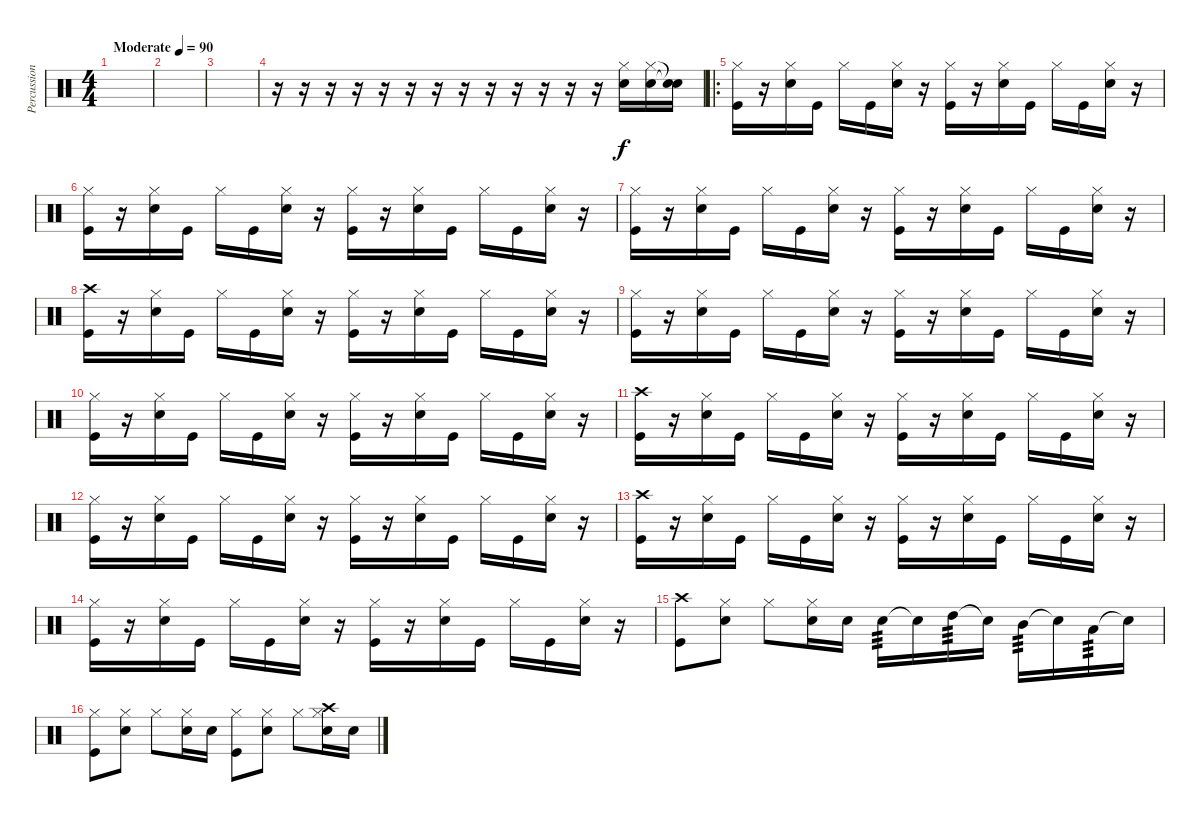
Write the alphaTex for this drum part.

\track ("Percussion" "Percussion") {instrument percussion}
\staff {score}
\articulation defaults
\ts (4 4)
\tempo (90 "Moderate")
\clef neutral
\ks c
|
|
|
r.16 r.16 r.16 r.16 r.16 r.16 r.16 r.16 r.16 r.16 r.16 r.16 r.16 ("Hi-Hat (closed)" "Electric Snare (hit)").16 ("Hi-Hat (closed)" "Electric Snare (hit)").16 ("Snare (hit)"{t} "Snare (hit)"{t}).16 |
\ro
("Hi-Hat (closed)" "Kick (hit)").16{volume 13} r.16 ("Hi-Hat (closed)" "Electric Snare (hit)").16 "Kick (hit)".16 "Hi-Hat (closed)".16 "Kick (hit)".16 ("Hi-Hat (closed)" "Electric Snare (hit)").16 r.16 ("Hi-Hat (closed)" "Kick (hit)").16 r.16 ("Hi-Hat (closed)" "Electric Snare (hit)").16 "Kick (hit)".16 "Hi-Hat (closed)".16 "Kick (hit)".16 ("Hi-Hat (closed)" "Electric Snare (hit)").16 r.16 |
("Hi-Hat (closed)" "Kick (hit)").16 r.16 ("Hi-Hat (closed)" "Electric Snare (hit)").16 "Kick (hit)".16 "Hi-Hat (closed)".16 "Kick (hit)".16 ("Hi-Hat (closed)" "Electric Snare (hit)").16 r.16 ("Hi-Hat (closed)" "Kick (hit)").16 r.16 ("Hi-Hat (closed)" "Electric Snare (hit)").16 "Kick (hit)".16 "Hi-Hat (closed)".16 "Kick (hit)".16 ("Hi-Hat (closed)" "Electric Snare (hit)").16 r.16 |
("Hi-Hat (closed)" "Kick (hit)").16 r.16 ("Hi-Hat (closed)" "Electric Snare (hit)").16 "Kick (hit)".16 "Hi-Hat (closed)".16 "Kick (hit)".16 ("Hi-Hat (closed)" "Electric Snare (hit)").16 r.16 ("Hi-Hat (closed)" "Kick (hit)").16 r.16 ("Hi-Hat (closed)" "Electric Snare (hit)").16 "Kick (hit)".16 "Hi-Hat (closed)".16 "Kick (hit)".16 ("Hi-Hat (closed)" "Electric Snare (hit)").16 r.16 |
("Crash high (hit)" "Kick (hit)").16 r.16 ("Hi-Hat (closed)" "Electric Snare (hit)").16 "Kick (hit)".16 "Hi-Hat (closed)".16 "Kick (hit)".16 ("Hi-Hat (closed)" "Electric Snare (hit)").16 r.16 ("Hi-Hat (closed)" "Kick (hit)").16 r.16 ("Hi-Hat (closed)" "Electric Snare (hit)").16 "Kick (hit)".16 "Hi-Hat (closed)".16 "Kick (hit)".16 ("Hi-Hat (closed)" "Electric Snare (hit)").16 r.16 |
("Hi-Hat (closed)" "Kick (hit)").16 r.16 ("Hi-Hat (closed)" "Electric Snare (hit)").16 "Kick (hit)".16 "Hi-Hat (closed)".16 "Kick (hit)".16 ("Hi-Hat (closed)" "Electric Snare (hit)").16 r.16 ("Hi-Hat (closed)" "Kick (hit)").16 r.16 ("Hi-Hat (closed)" "Electric Snare (hit)").16 "Kick (hit)".16 "Hi-Hat (closed)".16 "Kick (hit)".16 ("Hi-Hat (closed)" "Electric Snare (hit)").16 r.16 |
("Hi-Hat (closed)" "Kick (hit)").16 r.16 ("Hi-Hat (closed)" "Electric Snare (hit)").16 "Kick (hit)".16 "Hi-Hat (closed)".16 "Kick (hit)".16 ("Hi-Hat (closed)" "Electric Snare (hit)").16 r.16 ("Hi-Hat (closed)" "Kick (hit)").16 r.16 ("Hi-Hat (closed)" "Electric Snare (hit)").16 "Kick (hit)".16 "Hi-Hat (closed)".16 "Kick (hit)".16 ("Hi-Hat (closed)" "Electric Snare (hit)").16 r.16 |
("Crash high (hit)" "Kick (hit)").16 r.16 ("Hi-Hat (closed)" "Electric Snare (hit)").16 "Kick (hit)".16 "Hi-Hat (closed)".16 "Kick (hit)".16 ("Hi-Hat (closed)" "Electric Snare (hit)").16 r.16 ("Hi-Hat (closed)" "Kick (hit)").16 r.16 ("Hi-Hat (closed)" "Electric Snare (hit)").16 "Kick (hit)".16 "Hi-Hat (closed)".16 "Kick (hit)".16 ("Hi-Hat (closed)" "Electric Snare (hit)").16 r.16 |
("Hi-Hat (closed)" "Kick (hit)").16 r.16 ("Hi-Hat (closed)" "Electric Snare (hit)").16 "Kick (hit)".16 "Hi-Hat (closed)".16 "Kick (hit)".16 ("Hi-Hat (closed)" "Electric Snare (hit)").16 r.16 ("Hi-Hat (closed)" "Kick (hit)").16 r.16 ("Hi-Hat (closed)" "Electric Snare (hit)").16 "Kick (hit)".16 "Hi-Hat (closed)".16 "Kick (hit)".16 ("Hi-Hat (closed)" "Electric Snare (hit)").16 r.16 |
("Crash high (hit)" "Kick (hit)").16 r.16 ("Hi-Hat (closed)" "Electric Snare (hit)").16 "Kick (hit)".16 "Hi-Hat (closed)".16 "Kick (hit)".16 ("Hi-Hat (closed)" "Electric Snare (hit)").16 r.16 ("Hi-Hat (closed)" "Kick (hit)").16 r.16 ("Hi-Hat (closed)" "Electric Snare (hit)").16 "Kick (hit)".16 "Hi-Hat (closed)".16 "Kick (hit)".16 ("Hi-Hat (closed)" "Electric Snare (hit)").16 r.16 |
("Hi-Hat (closed)" "Kick (hit)").16 r.16 ("Hi-Hat (closed)" "Electric Snare (hit)").16 "Kick (hit)".16 "Hi-Hat (closed)".16 "Kick (hit)".16 ("Hi-Hat (closed)" "Electric Snare (hit)").16 r.16 ("Hi-Hat (closed)" "Kick (hit)").16 r.16 ("Hi-Hat (closed)" "Electric Snare (hit)").16 "Kick (hit)".16 "Hi-Hat (closed)".16 "Kick (hit)".16 ("Hi-Hat (closed)" "Electric Snare (hit)").16 r.16 |
("Crash high (hit)" "Kick (hit)").8{volume 16} ("Hi-Hat (closed)" "Electric Snare (hit)").8 "Hi-Hat (closed)".8 ("Hi-Hat (closed)" "Electric Snare (hit)").16 "Electric Snare (hit)".16 "Electric Snare (hit)".16{tp 3} "Snare (hit)"{t}.16 "High Tom (hit)".16{tp 3} "Snare (hit)"{t}.16 "Mid Tom (hit)".16{tp 3} "Snare (hit)"{t}.16 "Low Tom (hit)".16{tp 3} "Snare (hit)"{t}.16 |
("Hi-Hat (closed)" "Kick (hit)").8{volume 16} ("Hi-Hat (closed)" "Electric Snare (hit)").8 "Hi-Hat (closed)".8 ("Hi-Hat (closed)" "Electric Snare (hit)").16 "Electric Snare (hit)".16 ("Hi-Hat (closed)" "Kick (hit)").8 ("Hi-Hat (closed)" "Electric Snare (hit)").8 "Hi-Hat (closed)".8 ("Hi-Hat (closed)" "Crash high (hit)" "Electric Snare (hit)").16 "Electric Snare (hit)".16
